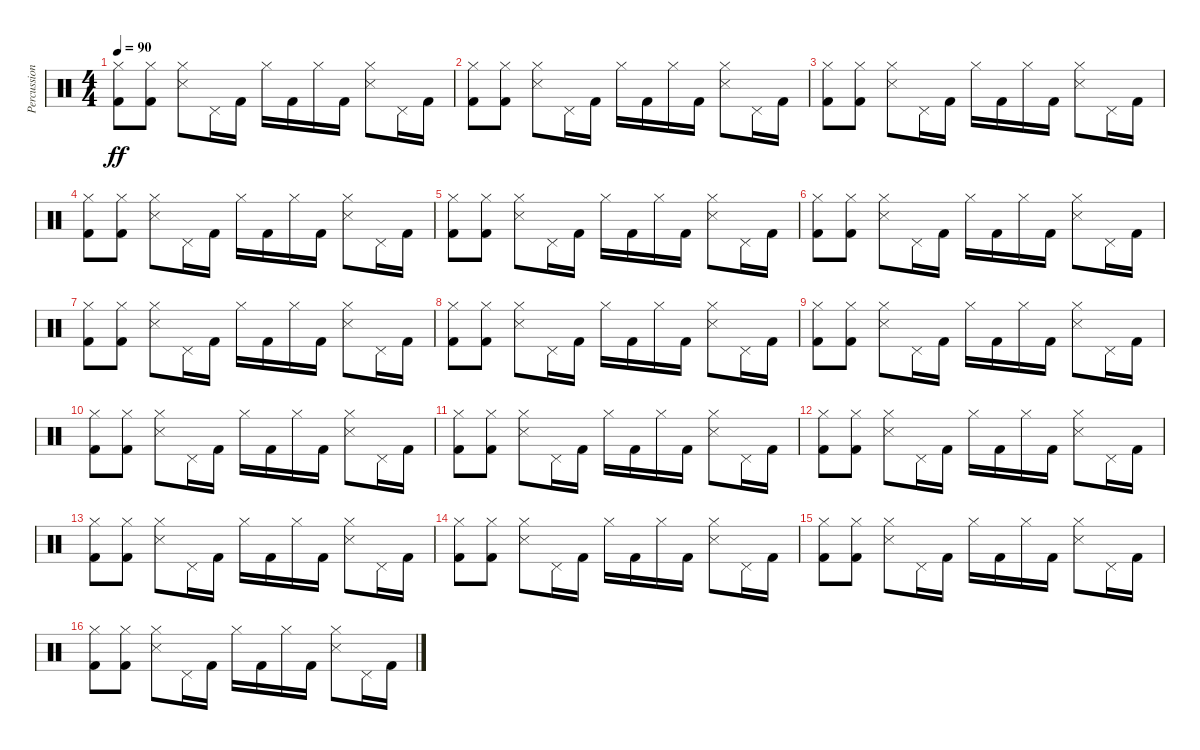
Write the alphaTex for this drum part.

\track ("Percussions" "Percussion") {instrument percussion}
\staff {score}
\articulation defaults
\ts (4 4)
\tempo 90
\clef neutral
\ks c
("Kick (hit) 2" "Hi-Hat (closed)").8{dy ff} ("Kick (hit) 2" "Hi-Hat (closed)").8 ("Snare (side stick) 3" "Hi-Hat (closed)").8 "Pedal Hi-Hat (hit)".16 "Kick (hit) 2".16 "Hi-Hat (closed)".16 "Kick (hit) 2".16 "Hi-Hat (closed)".16 "Kick (hit) 2".16 ("Snare (side stick) 3" "Hi-Hat (closed)").8 "Pedal Hi-Hat (hit)".16 "Kick (hit) 2".16 |
("Kick (hit) 2" "Hi-Hat (closed)").8 ("Kick (hit) 2" "Hi-Hat (closed)").8 ("Snare (side stick) 3" "Hi-Hat (closed)").8 "Pedal Hi-Hat (hit)".16 "Kick (hit) 2".16 "Hi-Hat (closed)".16 "Kick (hit) 2".16 "Hi-Hat (closed)".16 "Kick (hit) 2".16 ("Snare (side stick) 3" "Hi-Hat (closed)").8 "Pedal Hi-Hat (hit)".16 "Kick (hit) 2".16 |
("Kick (hit) 2" "Hi-Hat (closed)").8 ("Kick (hit) 2" "Hi-Hat (closed)").8 ("Snare (side stick) 3" "Hi-Hat (closed)").8 "Pedal Hi-Hat (hit)".16 "Kick (hit) 2".16 "Hi-Hat (closed)".16 "Kick (hit) 2".16 "Hi-Hat (closed)".16 "Kick (hit) 2".16 ("Snare (side stick) 3" "Hi-Hat (closed)").8 "Pedal Hi-Hat (hit)".16 "Kick (hit) 2".16 |
("Kick (hit) 2" "Hi-Hat (closed)").8 ("Kick (hit) 2" "Hi-Hat (closed)").8 ("Snare (side stick) 3" "Hi-Hat (closed)").8 "Pedal Hi-Hat (hit)".16 "Kick (hit) 2".16 "Hi-Hat (closed)".16 "Kick (hit) 2".16 "Hi-Hat (closed)".16 "Kick (hit) 2".16 ("Snare (side stick) 3" "Hi-Hat (closed)").8 "Pedal Hi-Hat (hit)".16 "Kick (hit) 2".16 |
("Kick (hit) 2" "Hi-Hat (closed)").8 ("Kick (hit) 2" "Hi-Hat (closed)").8 ("Snare (side stick) 3" "Hi-Hat (closed)").8 "Pedal Hi-Hat (hit)".16 "Kick (hit) 2".16 "Hi-Hat (closed)".16 "Kick (hit) 2".16 "Hi-Hat (closed)".16 "Kick (hit) 2".16 ("Snare (side stick) 3" "Hi-Hat (closed)").8 "Pedal Hi-Hat (hit)".16 "Kick (hit) 2".16 |
("Kick (hit) 2" "Hi-Hat (closed)").8 ("Kick (hit) 2" "Hi-Hat (closed)").8 ("Snare (side stick) 3" "Hi-Hat (closed)").8 "Pedal Hi-Hat (hit)".16 "Kick (hit) 2".16 "Hi-Hat (closed)".16 "Kick (hit) 2".16 "Hi-Hat (closed)".16 "Kick (hit) 2".16 ("Snare (side stick) 3" "Hi-Hat (closed)").8 "Pedal Hi-Hat (hit)".16 "Kick (hit) 2".16 |
("Kick (hit) 2" "Hi-Hat (closed)").8 ("Kick (hit) 2" "Hi-Hat (closed)").8 ("Snare (side stick) 3" "Hi-Hat (closed)").8 "Pedal Hi-Hat (hit)".16 "Kick (hit) 2".16 "Hi-Hat (closed)".16 "Kick (hit) 2".16 "Hi-Hat (closed)".16 "Kick (hit) 2".16 ("Snare (side stick) 3" "Hi-Hat (closed)").8 "Pedal Hi-Hat (hit)".16 "Kick (hit) 2".16 |
("Kick (hit) 2" "Hi-Hat (closed)").8 ("Kick (hit) 2" "Hi-Hat (closed)").8 ("Snare (side stick) 3" "Hi-Hat (closed)").8 "Pedal Hi-Hat (hit)".16 "Kick (hit) 2".16 "Hi-Hat (closed)".16 "Kick (hit) 2".16 "Hi-Hat (closed)".16 "Kick (hit) 2".16 ("Snare (side stick) 3" "Hi-Hat (closed)").8 "Pedal Hi-Hat (hit)".16 "Kick (hit) 2".16 |
("Kick (hit) 2" "Hi-Hat (closed)").8 ("Kick (hit) 2" "Hi-Hat (closed)").8 ("Snare (side stick) 3" "Hi-Hat (closed)").8 "Pedal Hi-Hat (hit)".16 "Kick (hit) 2".16 "Hi-Hat (closed)".16 "Kick (hit) 2".16 "Hi-Hat (closed)".16 "Kick (hit) 2".16 ("Snare (side stick) 3" "Hi-Hat (closed)").8 "Pedal Hi-Hat (hit)".16 "Kick (hit) 2".16 |
("Kick (hit) 2" "Hi-Hat (closed)").8 ("Kick (hit) 2" "Hi-Hat (closed)").8 ("Snare (side stick) 3" "Hi-Hat (closed)").8 "Pedal Hi-Hat (hit)".16 "Kick (hit) 2".16 "Hi-Hat (closed)".16 "Kick (hit) 2".16 "Hi-Hat (closed)".16 "Kick (hit) 2".16 ("Snare (side stick) 3" "Hi-Hat (closed)").8 "Pedal Hi-Hat (hit)".16 "Kick (hit) 2".16 |
("Kick (hit) 2" "Hi-Hat (closed)").8 ("Kick (hit) 2" "Hi-Hat (closed)").8 ("Snare (side stick) 3" "Hi-Hat (closed)").8 "Pedal Hi-Hat (hit)".16 "Kick (hit) 2".16 "Hi-Hat (closed)".16 "Kick (hit) 2".16 "Hi-Hat (closed)".16 "Kick (hit) 2".16 ("Snare (side stick) 3" "Hi-Hat (closed)").8 "Pedal Hi-Hat (hit)".16 "Kick (hit) 2".16 |
("Kick (hit) 2" "Hi-Hat (closed)").8 ("Kick (hit) 2" "Hi-Hat (closed)").8 ("Snare (side stick) 3" "Hi-Hat (closed)").8 "Pedal Hi-Hat (hit)".16 "Kick (hit) 2".16 "Hi-Hat (closed)".16 "Kick (hit) 2".16 "Hi-Hat (closed)".16 "Kick (hit) 2".16 ("Snare (side stick) 3" "Hi-Hat (closed)").8 "Pedal Hi-Hat (hit)".16 "Kick (hit) 2".16 |
("Kick (hit) 2" "Hi-Hat (closed)").8 ("Kick (hit) 2" "Hi-Hat (closed)").8 ("Snare (side stick) 3" "Hi-Hat (closed)").8 "Pedal Hi-Hat (hit)".16 "Kick (hit) 2".16 "Hi-Hat (closed)".16 "Kick (hit) 2".16 "Hi-Hat (closed)".16 "Kick (hit) 2".16 ("Snare (side stick) 3" "Hi-Hat (closed)").8 "Pedal Hi-Hat (hit)".16 "Kick (hit) 2".16 |
("Kick (hit) 2" "Hi-Hat (closed)").8 ("Kick (hit) 2" "Hi-Hat (closed)").8 ("Snare (side stick) 3" "Hi-Hat (closed)").8 "Pedal Hi-Hat (hit)".16 "Kick (hit) 2".16 "Hi-Hat (closed)".16 "Kick (hit) 2".16 "Hi-Hat (closed)".16 "Kick (hit) 2".16 ("Snare (side stick) 3" "Hi-Hat (closed)").8 "Pedal Hi-Hat (hit)".16 "Kick (hit) 2".16 |
("Kick (hit) 2" "Hi-Hat (closed)").8 ("Kick (hit) 2" "Hi-Hat (closed)").8 ("Snare (side stick) 3" "Hi-Hat (closed)").8 "Pedal Hi-Hat (hit)".16 "Kick (hit) 2".16 "Hi-Hat (closed)".16 "Kick (hit) 2".16 "Hi-Hat (closed)".16 "Kick (hit) 2".16 ("Snare (side stick) 3" "Hi-Hat (closed)").8 "Pedal Hi-Hat (hit)".16 "Kick (hit) 2".16 |
("Kick (hit) 2" "Hi-Hat (closed)").8 ("Kick (hit) 2" "Hi-Hat (closed)").8 ("Snare (side stick) 3" "Hi-Hat (closed)").8 "Pedal Hi-Hat (hit)".16 "Kick (hit) 2".16 "Hi-Hat (closed)".16 "Kick (hit) 2".16 "Hi-Hat (closed)".16 "Kick (hit) 2".16 ("Snare (side stick) 3" "Hi-Hat (closed)").8 "Pedal Hi-Hat (hit)".16 "Kick (hit) 2".16
